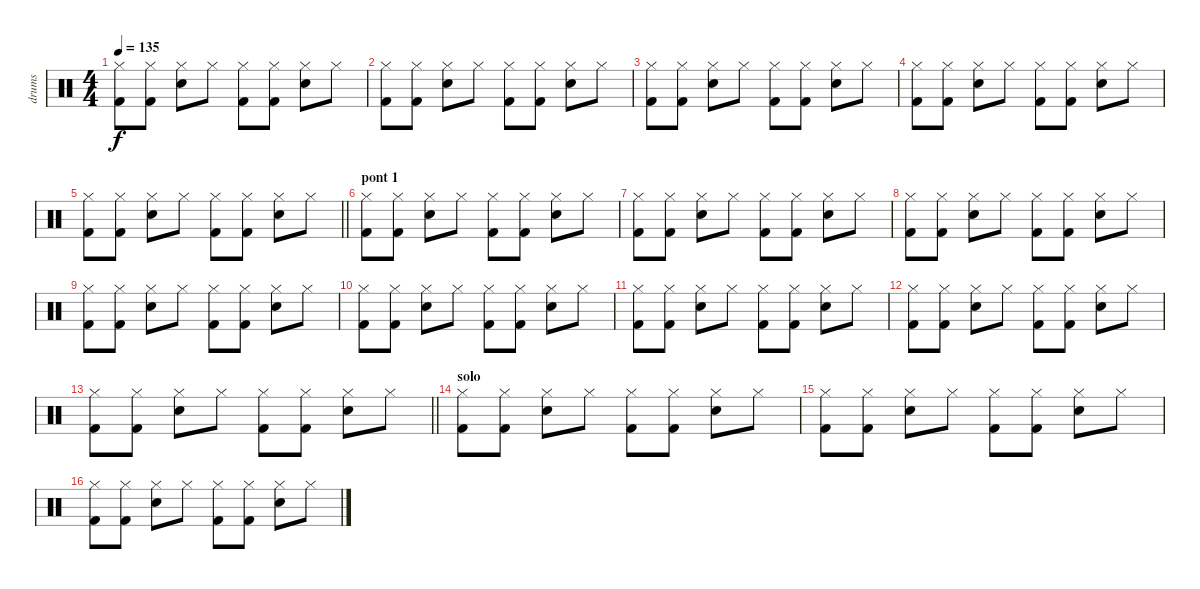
\track ("drums" "drums") {instrument percussion}
\staff {score}
\articulation defaults
\ts (4 4)
\tempo 135
\clef neutral
\ks c
("Hi-Hat (closed)" "Kick (hit) 2").8{dy f} ("Hi-Hat (closed)" "Kick (hit) 2").8 ("Hi-Hat (closed)" "Electric Snare (hit)").8 "Hi-Hat (closed)".8 ("Hi-Hat (closed)" "Kick (hit) 2").8 ("Hi-Hat (closed)" "Kick (hit) 2").8 ("Hi-Hat (closed)" "Electric Snare (hit)").8 "Hi-Hat (closed)".8 |
("Hi-Hat (closed)" "Kick (hit) 2").8 ("Hi-Hat (closed)" "Kick (hit) 2").8 ("Hi-Hat (closed)" "Electric Snare (hit)").8 "Hi-Hat (closed)".8 ("Hi-Hat (closed)" "Kick (hit) 2").8 ("Hi-Hat (closed)" "Kick (hit) 2").8 ("Hi-Hat (closed)" "Electric Snare (hit)").8 "Hi-Hat (closed)".8 |
("Hi-Hat (closed)" "Kick (hit) 2").8 ("Hi-Hat (closed)" "Kick (hit) 2").8 ("Hi-Hat (closed)" "Electric Snare (hit)").8 "Hi-Hat (closed)".8 ("Hi-Hat (closed)" "Kick (hit) 2").8 ("Hi-Hat (closed)" "Kick (hit) 2").8 ("Hi-Hat (closed)" "Electric Snare (hit)").8 "Hi-Hat (closed)".8 |
("Hi-Hat (closed)" "Kick (hit) 2").8 ("Hi-Hat (closed)" "Kick (hit) 2").8 ("Hi-Hat (closed)" "Electric Snare (hit)").8 "Hi-Hat (closed)".8 ("Hi-Hat (closed)" "Kick (hit) 2").8 ("Hi-Hat (closed)" "Kick (hit) 2").8 ("Hi-Hat (closed)" "Electric Snare (hit)").8 "Hi-Hat (closed)".8 |
\barLineRight lightlight
("Hi-Hat (closed)" "Kick (hit) 2").8 ("Hi-Hat (closed)" "Kick (hit) 2").8 ("Hi-Hat (closed)" "Electric Snare (hit)").8 "Hi-Hat (closed)".8 ("Hi-Hat (closed)" "Kick (hit) 2").8 ("Hi-Hat (closed)" "Kick (hit) 2").8 ("Hi-Hat (closed)" "Electric Snare (hit)").8 "Hi-Hat (closed)".8 |
\section ("" "pont 1")
("Hi-Hat (closed)" "Kick (hit) 2").8 ("Hi-Hat (closed)" "Kick (hit) 2").8 ("Hi-Hat (closed)" "Electric Snare (hit)").8 "Hi-Hat (closed)".8 ("Hi-Hat (closed)" "Kick (hit) 2").8 ("Hi-Hat (closed)" "Kick (hit) 2").8 ("Hi-Hat (closed)" "Electric Snare (hit)").8 "Hi-Hat (closed)".8 |
("Hi-Hat (closed)" "Kick (hit) 2").8 ("Hi-Hat (closed)" "Kick (hit) 2").8 ("Hi-Hat (closed)" "Electric Snare (hit)").8 "Hi-Hat (closed)".8 ("Hi-Hat (closed)" "Kick (hit) 2").8 ("Hi-Hat (closed)" "Kick (hit) 2").8 ("Hi-Hat (closed)" "Electric Snare (hit)").8 "Hi-Hat (closed)".8 |
("Hi-Hat (closed)" "Kick (hit) 2").8 ("Hi-Hat (closed)" "Kick (hit) 2").8 ("Hi-Hat (closed)" "Electric Snare (hit)").8 "Hi-Hat (closed)".8 ("Hi-Hat (closed)" "Kick (hit) 2").8 ("Hi-Hat (closed)" "Kick (hit) 2").8 ("Hi-Hat (closed)" "Electric Snare (hit)").8 "Hi-Hat (closed)".8 |
("Hi-Hat (closed)" "Kick (hit) 2").8 ("Hi-Hat (closed)" "Kick (hit) 2").8 ("Hi-Hat (closed)" "Electric Snare (hit)").8 "Hi-Hat (closed)".8 ("Hi-Hat (closed)" "Kick (hit) 2").8 ("Hi-Hat (closed)" "Kick (hit) 2").8 ("Hi-Hat (closed)" "Electric Snare (hit)").8 "Hi-Hat (closed)".8 |
("Hi-Hat (closed)" "Kick (hit) 2").8 ("Hi-Hat (closed)" "Kick (hit) 2").8 ("Hi-Hat (closed)" "Electric Snare (hit)").8 "Hi-Hat (closed)".8 ("Hi-Hat (closed)" "Kick (hit) 2").8 ("Hi-Hat (closed)" "Kick (hit) 2").8 ("Hi-Hat (closed)" "Electric Snare (hit)").8 "Hi-Hat (closed)".8 |
("Hi-Hat (closed)" "Kick (hit) 2").8 ("Hi-Hat (closed)" "Kick (hit) 2").8 ("Hi-Hat (closed)" "Electric Snare (hit)").8 "Hi-Hat (closed)".8 ("Hi-Hat (closed)" "Kick (hit) 2").8 ("Hi-Hat (closed)" "Kick (hit) 2").8 ("Hi-Hat (closed)" "Electric Snare (hit)").8 "Hi-Hat (closed)".8 |
("Hi-Hat (closed)" "Kick (hit) 2").8 ("Hi-Hat (closed)" "Kick (hit) 2").8 ("Hi-Hat (closed)" "Electric Snare (hit)").8 "Hi-Hat (closed)".8 ("Hi-Hat (closed)" "Kick (hit) 2").8 ("Hi-Hat (closed)" "Kick (hit) 2").8 ("Hi-Hat (closed)" "Electric Snare (hit)").8 "Hi-Hat (closed)".8 |
\barLineRight lightlight
("Hi-Hat (closed)" "Kick (hit) 2").8 ("Hi-Hat (closed)" "Kick (hit) 2").8 ("Hi-Hat (closed)" "Electric Snare (hit)").8 "Hi-Hat (closed)".8 ("Hi-Hat (closed)" "Kick (hit) 2").8 ("Hi-Hat (closed)" "Kick (hit) 2").8 ("Hi-Hat (closed)" "Electric Snare (hit)").8 "Hi-Hat (closed)".8 |
\section ("" "solo")
("Hi-Hat (closed)" "Kick (hit) 2").8 ("Hi-Hat (closed)" "Kick (hit) 2").8 ("Hi-Hat (closed)" "Electric Snare (hit)").8 "Hi-Hat (closed)".8 ("Hi-Hat (closed)" "Kick (hit) 2").8 ("Hi-Hat (closed)" "Kick (hit) 2").8 ("Hi-Hat (closed)" "Electric Snare (hit)").8 "Hi-Hat (closed)".8 |
("Hi-Hat (closed)" "Kick (hit) 2").8 ("Hi-Hat (closed)" "Kick (hit) 2").8 ("Hi-Hat (closed)" "Electric Snare (hit)").8 "Hi-Hat (closed)".8 ("Hi-Hat (closed)" "Kick (hit) 2").8 ("Hi-Hat (closed)" "Kick (hit) 2").8 ("Hi-Hat (closed)" "Electric Snare (hit)").8 "Hi-Hat (closed)".8 |
("Hi-Hat (closed)" "Kick (hit) 2").8 ("Hi-Hat (closed)" "Kick (hit) 2").8 ("Hi-Hat (closed)" "Electric Snare (hit)").8 "Hi-Hat (closed)".8 ("Hi-Hat (closed)" "Kick (hit) 2").8 ("Hi-Hat (closed)" "Kick (hit) 2").8 ("Hi-Hat (closed)" "Electric Snare (hit)").8 "Hi-Hat (closed)".8
